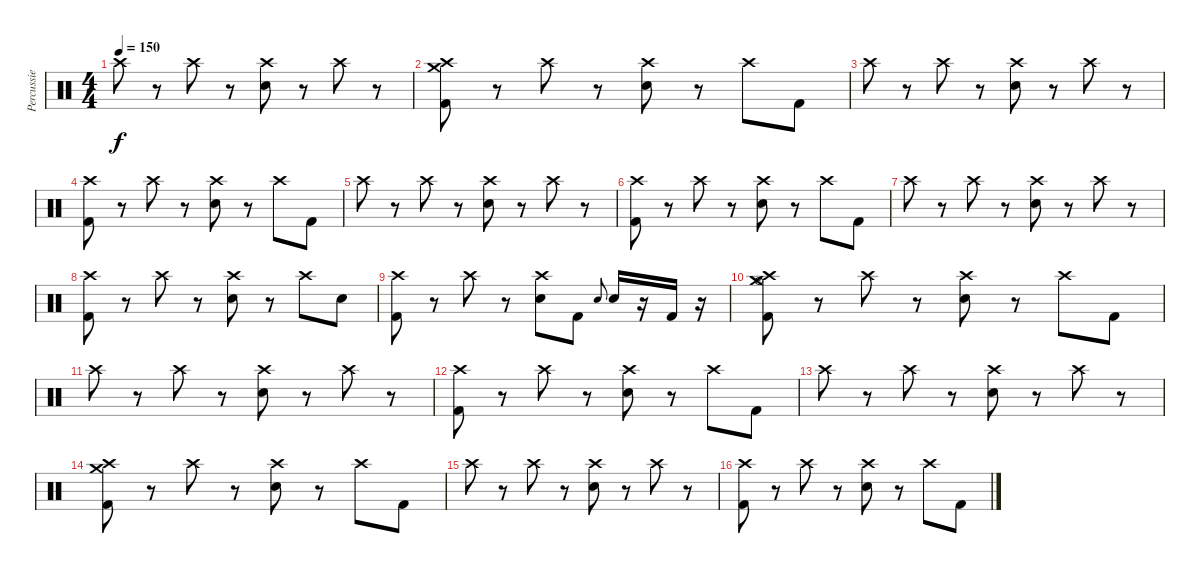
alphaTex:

\track ("Percussie" "Percussie") {instrument percussion}
\staff {score}
\articulation defaults
\ts (4 4)
\tempo 150
\clef neutral
\ks c "Crash high (hit)".8{dy f}
r.8 "Crash high (hit)".8 r.8 ("Crash high (hit)" "Electric Snare (hit)").8 r.8 "Crash high (hit)".8 r.8 |
("Crash high (hit)" "Crash medium (hit)" "Kick (hit) 2").8 r.8 "Crash high (hit)".8 r.8 ("Crash high (hit)" "Electric Snare (hit)").8 r.8 "Crash high (hit)".8 "Kick (hit) 2".8 |
"Crash high (hit)".8 r.8 "Crash high (hit)".8 r.8 ("Crash high (hit)" "Electric Snare (hit)").8 r.8 "Crash high (hit)".8 r.8 |
("Crash high (hit)" "Kick (hit) 2").8 r.8 "Crash high (hit)".8 r.8 ("Crash high (hit)" "Electric Snare (hit)").8 r.8 "Crash high (hit)".8 "Kick (hit) 2".8 |
"Crash high (hit)".8 r.8 "Crash high (hit)".8 r.8 ("Crash high (hit)" "Electric Snare (hit)").8 r.8 "Crash high (hit)".8 r.8 |
("Crash high (hit)" "Kick (hit) 2").8 r.8 "Crash high (hit)".8 r.8 ("Crash high (hit)" "Electric Snare (hit)").8 r.8 "Crash high (hit)".8 "Kick (hit) 2".8 |
"Crash high (hit)".8 r.8 "Crash high (hit)".8 r.8 ("Crash high (hit)" "Electric Snare (hit)").8 r.8 "Crash high (hit)".8 r.8 |
("Crash high (hit)" "Kick (hit) 2").8 r.8 "Crash high (hit)".8 r.8 ("Crash high (hit)" "Electric Snare (hit)").8 r.8 "Crash high (hit)".8 "Electric Snare (hit)".8 |
("Crash high (hit)" "Kick (hit) 2").8 r.8 "Crash high (hit)".8 r.8 ("Crash high (hit)" "Electric Snare (hit)").8 "Kick (hit) 2".8 "Electric Snare (hit)".8{gr onbeat} "Electric Snare (hit)".16 r.16 "Kick (hit) 2".16 r.16 |
("Crash high (hit)" "Crash medium (hit)" "Hi-Hat (open)" "Kick (hit) 2").8 r.8 "Crash high (hit)".8 r.8 ("Crash high (hit)" "Electric Snare (hit)").8 r.8 "Crash high (hit)".8 "Kick (hit) 2".8 |
"Crash high (hit)".8 r.8 "Crash high (hit)".8 r.8 ("Crash high (hit)" "Electric Snare (hit)").8 r.8 "Crash high (hit)".8 r.8 |
("Crash high (hit)" "Kick (hit) 2").8 r.8 "Crash high (hit)".8 r.8 ("Crash high (hit)" "Electric Snare (hit)").8 r.8 "Crash high (hit)".8 "Kick (hit) 2".8 |
"Crash high (hit)".8 r.8 "Crash high (hit)".8 r.8 ("Crash high (hit)" "Electric Snare (hit)").8 r.8 "Crash high (hit)".8 r.8 |
("Crash high (hit)" "Crash medium (hit)" "Kick (hit) 2").8 r.8 "Crash high (hit)".8 r.8 ("Crash high (hit)" "Electric Snare (hit)").8 r.8 "Crash high (hit)".8 "Kick (hit) 2".8 |
"Crash high (hit)".8 r.8 "Crash high (hit)".8 r.8 ("Crash high (hit)" "Electric Snare (hit)").8 r.8 "Crash high (hit)".8 r.8 |
("Crash high (hit)" "Kick (hit) 2").8 r.8 "Crash high (hit)".8 r.8 ("Crash high (hit)" "Electric Snare (hit)").8 r.8 "Crash high (hit)".8 "Kick (hit) 2".8
